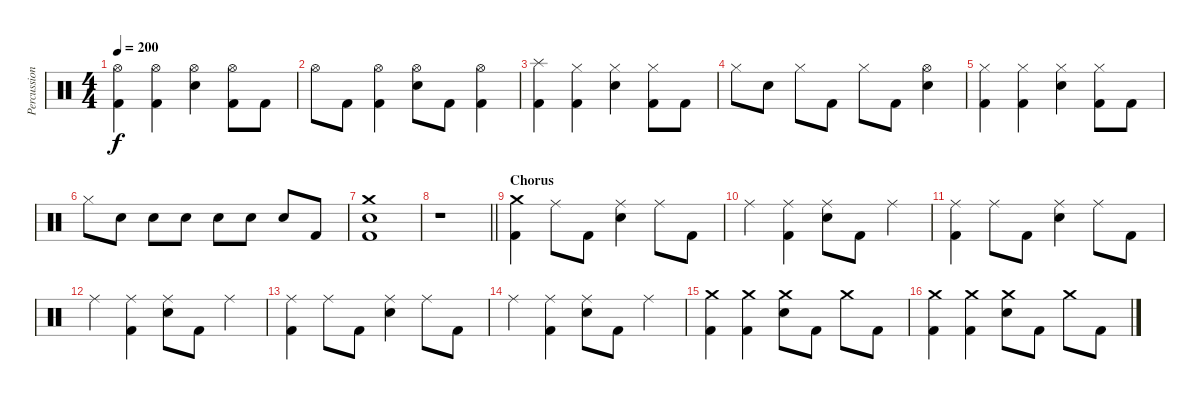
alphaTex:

\track ("Percussion" "Percussion") {instrument percussion}
\staff {score}
\articulation defaults
\ts (4 4)
\tempo 200
\clef neutral
\ks c
("Hi-Hat (open)" "Kick (hit) 2").4{dy f} ("Hi-Hat (open)" "Kick (hit) 2").4 ("Hi-Hat (open)" "Electric Snare (hit)").4 ("Hi-Hat (open)" "Kick (hit) 2").8 "Kick (hit) 2".8 |
"Hi-Hat (open)".8 "Kick (hit) 2".8 ("Hi-Hat (open)" "Kick (hit) 2").4 ("Hi-Hat (open)" "Electric Snare (hit)").8 "Kick (hit) 2".8 ("Hi-Hat (open)" "Kick (hit) 2").4 |
("Splash (hit)" "Kick (hit) 2").4 ("Hi-Hat (closed)" "Kick (hit) 2").4 ("Hi-Hat (closed)" "Electric Snare (hit)").4 ("Hi-Hat (closed)" "Kick (hit) 2").8 "Kick (hit) 2".8 |
"Hi-Hat (closed)".8 "Electric Snare (hit)".8 "Hi-Hat (closed)".8 "Kick (hit) 2".8 "Hi-Hat (closed)".8 "Kick (hit) 2".8 ("Hi-Hat (open)" "Electric Snare (hit)").4 |
("Hi-Hat (closed)" "Kick (hit) 2").4 ("Hi-Hat (closed)" "Kick (hit) 2").4 ("Hi-Hat (closed)" "Electric Snare (hit)").4 ("Hi-Hat (closed)" "Kick (hit) 2").8 "Kick (hit) 2".8 |
"Hi-Hat (closed)".8 "Electric Snare (hit)".8 "Electric Snare (hit)".8 "Electric Snare (hit)".8 "Electric Snare (hit)".8 "Electric Snare (hit)".8 "Electric Snare (hit)".8 "Kick (hit) 2".8 |
("Crash medium (hit)" "Kick (hit) 2" "Electric Snare (hit)").1 |
\barLineRight lightlight
r.1 |
\section ("" "Chorus")
("Crash medium (hit)" "Kick (hit) 2").4 "Ride (middle)".8 "Kick (hit) 2".8 ("Ride (middle)" "Electric Snare (hit)").4 "Ride (middle)".8 "Kick (hit) 2".8 |
"Ride (middle)".4 ("Ride (middle)" "Kick (hit) 2").4 ("Ride (middle)" "Electric Snare (hit)").8 "Kick (hit) 2".8 "Ride (middle)".4 |
("Ride (middle)" "Kick (hit) 2").4 "Ride (middle)".8 "Kick (hit) 2".8 ("Ride (middle)" "Electric Snare (hit)").4 "Ride (middle)".8 "Kick (hit) 2".8 |
"Ride (middle)".4 ("Ride (middle)" "Kick (hit) 2").4 ("Ride (middle)" "Electric Snare (hit)").8 "Kick (hit) 2".8 "Ride (middle)".4 |
("Ride (middle)" "Kick (hit) 2").4 "Ride (middle)".8 "Kick (hit) 2".8 ("Ride (middle)" "Electric Snare (hit)").4 "Ride (middle)".8 "Kick (hit) 2".8 |
"Ride (middle)".4 ("Ride (middle)" "Kick (hit) 2").4 ("Ride (middle)" "Electric Snare (hit)").8 "Kick (hit) 2".8 "Ride (middle)".4 |
("Crash medium (hit)" "Kick (hit) 2").4 ("Crash medium (hit)" "Kick (hit) 2").4 ("Crash medium (hit)" "Electric Snare (hit)").8 "Kick (hit) 2".8 "Crash medium (hit)".8 "Kick (hit) 2".8 |
("Crash medium (hit)" "Kick (hit) 2").4 ("Crash medium (hit)" "Kick (hit) 2").4 ("Crash medium (hit)" "Electric Snare (hit)").8 "Kick (hit) 2".8 "Crash medium (hit)".8 "Kick (hit) 2".8
